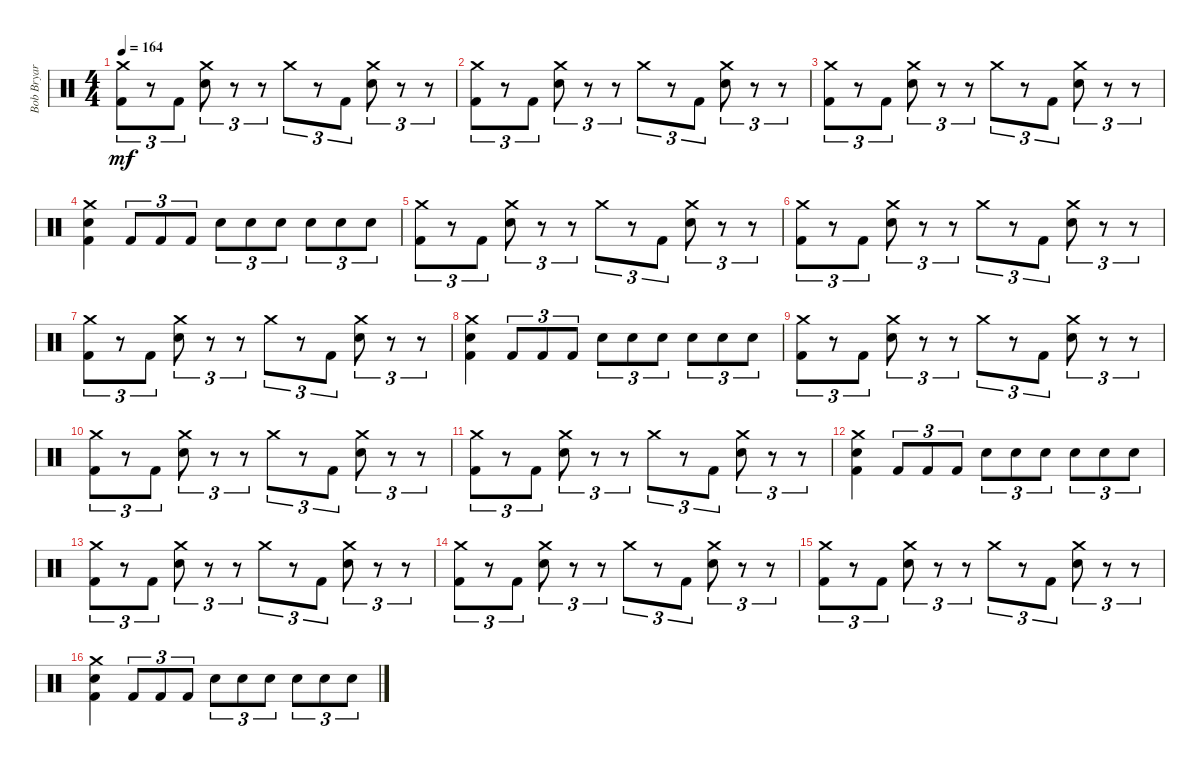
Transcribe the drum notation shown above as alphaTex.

\track ("Bob Bryar" "Bob Bryar") {instrument percussion}
\staff {score}
\articulation defaults
\ts (4 4)
\tempo 164
\clef neutral
\ks c
("Crash medium (hit)" "Kick (hit) 2").8{tu (3 2) dy mf} r.8{tu (3 2)} "Kick (hit) 2".8{tu (3 2)} ("Crash medium (hit)" "Electric Snare (hit)").8{tu (3 2)} r.8{tu (3 2)} r.8{tu (3 2)} "Crash medium (hit)".8{tu (3 2)} r.8{tu (3 2)} "Kick (hit) 2".8{tu (3 2)} ("Crash medium (hit)" "Electric Snare (hit)").8{tu (3 2)} r.8{tu (3 2)} r.8{tu (3 2)} |
("Crash medium (hit)" "Kick (hit) 2").8{tu (3 2)} r.8{tu (3 2)} "Kick (hit) 2".8{tu (3 2)} ("Crash medium (hit)" "Electric Snare (hit)").8{tu (3 2)} r.8{tu (3 2)} r.8{tu (3 2)} "Crash medium (hit)".8{tu (3 2)} r.8{tu (3 2)} "Kick (hit) 2".8{tu (3 2)} ("Crash medium (hit)" "Electric Snare (hit)").8{tu (3 2)} r.8{tu (3 2)} r.8{tu (3 2)} |
("Crash medium (hit)" "Kick (hit) 2").8{tu (3 2)} r.8{tu (3 2)} "Kick (hit) 2".8{tu (3 2)} ("Crash medium (hit)" "Electric Snare (hit)").8{tu (3 2)} r.8{tu (3 2)} r.8{tu (3 2)} "Crash medium (hit)".8{tu (3 2)} r.8{tu (3 2)} "Kick (hit) 2".8{tu (3 2)} ("Crash medium (hit)" "Electric Snare (hit)").8{tu (3 2)} r.8{tu (3 2)} r.8{tu (3 2)} |
("Crash medium (hit)" "Electric Snare (hit)" "Kick (hit) 2").4 "Kick (hit) 2".8{tu (3 2)} "Kick (hit) 2".8{tu (3 2)} "Kick (hit) 2".8{tu (3 2)} "Electric Snare (hit)".8{tu (3 2)} "Electric Snare (hit)".8{tu (3 2)} "Electric Snare (hit)".8{tu (3 2)} "Electric Snare (hit)".8{tu (3 2)} "Electric Snare (hit)".8{tu (3 2)} "Electric Snare (hit)".8{tu (3 2)} |
("Crash medium (hit)" "Kick (hit) 2").8{tu (3 2)} r.8{tu (3 2)} "Kick (hit) 2".8{tu (3 2)} ("Crash medium (hit)" "Electric Snare (hit)").8{tu (3 2)} r.8{tu (3 2)} r.8{tu (3 2)} "Crash medium (hit)".8{tu (3 2)} r.8{tu (3 2)} "Kick (hit) 2".8{tu (3 2)} ("Crash medium (hit)" "Electric Snare (hit)").8{tu (3 2)} r.8{tu (3 2)} r.8{tu (3 2)} |
("Crash medium (hit)" "Kick (hit) 2").8{tu (3 2)} r.8{tu (3 2)} "Kick (hit) 2".8{tu (3 2)} ("Crash medium (hit)" "Electric Snare (hit)").8{tu (3 2)} r.8{tu (3 2)} r.8{tu (3 2)} "Crash medium (hit)".8{tu (3 2)} r.8{tu (3 2)} "Kick (hit) 2".8{tu (3 2)} ("Crash medium (hit)" "Electric Snare (hit)").8{tu (3 2)} r.8{tu (3 2)} r.8{tu (3 2)} |
("Crash medium (hit)" "Kick (hit) 2").8{tu (3 2)} r.8{tu (3 2)} "Kick (hit) 2".8{tu (3 2)} ("Crash medium (hit)" "Electric Snare (hit)").8{tu (3 2)} r.8{tu (3 2)} r.8{tu (3 2)} "Crash medium (hit)".8{tu (3 2)} r.8{tu (3 2)} "Kick (hit) 2".8{tu (3 2)} ("Crash medium (hit)" "Electric Snare (hit)").8{tu (3 2)} r.8{tu (3 2)} r.8{tu (3 2)} |
("Crash medium (hit)" "Electric Snare (hit)" "Kick (hit) 2").4 "Kick (hit) 2".8{tu (3 2)} "Kick (hit) 2".8{tu (3 2)} "Kick (hit) 2".8{tu (3 2)} "Electric Snare (hit)".8{tu (3 2)} "Electric Snare (hit)".8{tu (3 2)} "Electric Snare (hit)".8{tu (3 2)} "Electric Snare (hit)".8{tu (3 2)} "Electric Snare (hit)".8{tu (3 2)} "Electric Snare (hit)".8{tu (3 2)} |
("Crash medium (hit)" "Kick (hit) 2").8{tu (3 2)} r.8{tu (3 2)} "Kick (hit) 2".8{tu (3 2)} ("Crash medium (hit)" "Electric Snare (hit)").8{tu (3 2)} r.8{tu (3 2)} r.8{tu (3 2)} "Crash medium (hit)".8{tu (3 2)} r.8{tu (3 2)} "Kick (hit) 2".8{tu (3 2)} ("Crash medium (hit)" "Electric Snare (hit)").8{tu (3 2)} r.8{tu (3 2)} r.8{tu (3 2)} |
("Crash medium (hit)" "Kick (hit) 2").8{tu (3 2)} r.8{tu (3 2)} "Kick (hit) 2".8{tu (3 2)} ("Crash medium (hit)" "Electric Snare (hit)").8{tu (3 2)} r.8{tu (3 2)} r.8{tu (3 2)} "Crash medium (hit)".8{tu (3 2)} r.8{tu (3 2)} "Kick (hit) 2".8{tu (3 2)} ("Crash medium (hit)" "Electric Snare (hit)").8{tu (3 2)} r.8{tu (3 2)} r.8{tu (3 2)} |
("Crash medium (hit)" "Kick (hit) 2").8{tu (3 2)} r.8{tu (3 2)} "Kick (hit) 2".8{tu (3 2)} ("Crash medium (hit)" "Electric Snare (hit)").8{tu (3 2)} r.8{tu (3 2)} r.8{tu (3 2)} "Crash medium (hit)".8{tu (3 2)} r.8{tu (3 2)} "Kick (hit) 2".8{tu (3 2)} ("Crash medium (hit)" "Electric Snare (hit)").8{tu (3 2)} r.8{tu (3 2)} r.8{tu (3 2)} |
("Crash medium (hit)" "Electric Snare (hit)" "Kick (hit) 2").4 "Kick (hit) 2".8{tu (3 2)} "Kick (hit) 2".8{tu (3 2)} "Kick (hit) 2".8{tu (3 2)} "Electric Snare (hit)".8{tu (3 2)} "Electric Snare (hit)".8{tu (3 2)} "Electric Snare (hit)".8{tu (3 2)} "Electric Snare (hit)".8{tu (3 2)} "Electric Snare (hit)".8{tu (3 2)} "Electric Snare (hit)".8{tu (3 2)} |
("Crash medium (hit)" "Kick (hit) 2").8{tu (3 2) volume 6} r.8{tu (3 2)} "Kick (hit) 2".8{tu (3 2)} ("Crash medium (hit)" "Electric Snare (hit)").8{tu (3 2)} r.8{tu (3 2)} r.8{tu (3 2)} "Crash medium (hit)".8{tu (3 2)} r.8{tu (3 2)} "Kick (hit) 2".8{tu (3 2)} ("Crash medium (hit)" "Electric Snare (hit)").8{tu (3 2)} r.8{tu (3 2)} r.8{tu (3 2)} |
("Crash medium (hit)" "Kick (hit) 2").8{tu (3 2)} r.8{tu (3 2)} "Kick (hit) 2".8{tu (3 2)} ("Crash medium (hit)" "Electric Snare (hit)").8{tu (3 2)} r.8{tu (3 2)} r.8{tu (3 2)} "Crash medium (hit)".8{tu (3 2)} r.8{tu (3 2)} "Kick (hit) 2".8{tu (3 2)} ("Crash medium (hit)" "Electric Snare (hit)").8{tu (3 2)} r.8{tu (3 2)} r.8{tu (3 2)} |
("Crash medium (hit)" "Kick (hit) 2").8{tu (3 2)} r.8{tu (3 2)} "Kick (hit) 2".8{tu (3 2)} ("Crash medium (hit)" "Electric Snare (hit)").8{tu (3 2)} r.8{tu (3 2)} r.8{tu (3 2)} "Crash medium (hit)".8{tu (3 2)} r.8{tu (3 2)} "Kick (hit) 2".8{tu (3 2)} ("Crash medium (hit)" "Electric Snare (hit)").8{tu (3 2)} r.8{tu (3 2)} r.8{tu (3 2)} |
("Crash medium (hit)" "Electric Snare (hit)" "Kick (hit) 2").4 "Kick (hit) 2".8{tu (3 2)} "Kick (hit) 2".8{tu (3 2)} "Kick (hit) 2".8{tu (3 2)} "Electric Snare (hit)".8{tu (3 2)} "Electric Snare (hit)".8{tu (3 2)} "Electric Snare (hit)".8{tu (3 2)} "Electric Snare (hit)".8{tu (3 2)} "Electric Snare (hit)".8{tu (3 2)} "Electric Snare (hit)".8{tu (3 2)}
